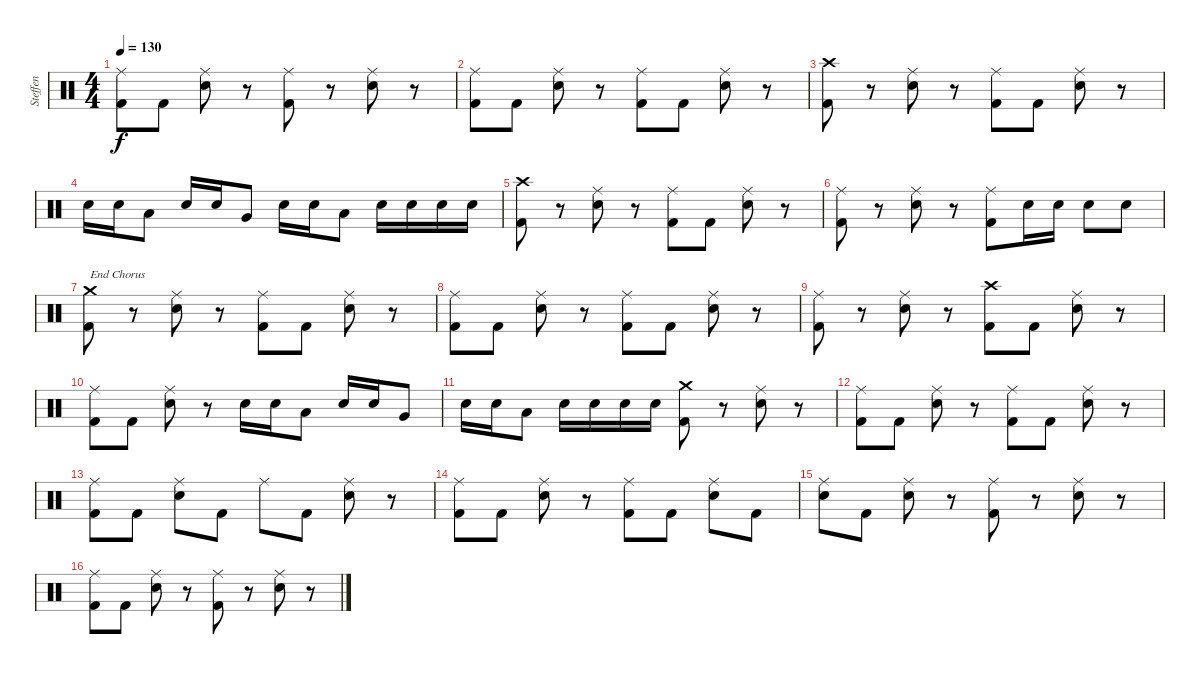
\track ("Steffen" "Steffen") {instrument percussion}
\staff {score}
\articulation defaults
\ts (4 4)
\tempo 130
\clef neutral
\ks c
("Ride (middle)" "Kick (hit) 2").8{dy f} "Kick (hit) 2".8 ("Ride (middle)" "Snare (hit) 2").8 r.8 ("Ride (middle)" "Kick (hit) 2").8 r.8 ("Ride (middle)" "Snare (hit) 2").8 r.8 |
("Ride (middle)" "Kick (hit) 2").8 "Kick (hit) 2".8 ("Ride (middle)" "Snare (hit) 2").8 r.8 ("Ride (middle)" "Kick (hit) 2").8 "Kick (hit) 2".8 ("Ride (middle)" "Snare (hit) 2").8 r.8 |
("Crash high (hit)" "Kick (hit) 2").8 r.8 ("Ride (middle)" "Snare (hit) 2").8 r.8 ("Ride (middle)" "Kick (hit) 2").8 "Kick (hit) 2".8 ("Ride (middle)" "Snare (hit) 2").8 r.8 |
"Snare (hit) 2".16 "Snare (hit) 2".16 "Low Tom (hit)".8 "Snare (hit) 2".16 "Snare (hit) 2".16 "Very Low Tom (hit)".8 "Snare (hit) 2".16 "Snare (hit) 2".16 "Low Floor Tom (hit)".8 "Snare (hit) 2".16 "Snare (hit) 2".16 "Snare (hit) 2".16 "Snare (hit) 2".16 |
("Crash high (hit)" "Kick (hit) 2").8 r.8 ("Ride (middle)" "Snare (hit) 2").8 r.8 ("Ride (middle)" "Kick (hit) 2").8 "Kick (hit) 2".8 ("Ride (middle)" "Snare (hit) 2").8 r.8 |
("Ride (middle)" "Kick (hit) 2").8 r.8 ("Ride (middle)" "Snare (hit) 2").8 r.8 ("Ride (middle)" "Kick (hit) 2").8 "Snare (hit) 2".16 "Snare (hit) 2".16 "Snare (hit) 2".8 "Snare (hit) 2".8 |
("Crash medium (hit)" "Kick (hit) 2").8{txt "End Chorus"} r.8 ("Ride (middle)" "Snare (hit) 2").8 r.8 ("Ride (middle)" "Kick (hit) 2").8 "Kick (hit) 2".8 ("Ride (middle)" "Snare (hit) 2").8 r.8 |
("Ride (middle)" "Kick (hit) 2").8 "Kick (hit) 2".8 ("Ride (middle)" "Snare (hit) 2").8 r.8 ("Ride (middle)" "Kick (hit) 2").8 "Kick (hit) 2".8 ("Ride (middle)" "Snare (hit) 2").8 r.8 |
("Ride (middle)" "Kick (hit) 2").8 r.8 ("Ride (middle)" "Snare (hit) 2").8 r.8 ("Crash high (hit)" "Kick (hit) 2").8 "Kick (hit) 2".8 ("Ride (middle)" "Snare (hit) 2").8 r.8 |
("Ride (middle)" "Kick (hit) 2").8 "Kick (hit) 2".8 ("Ride (middle)" "Snare (hit) 2").8 r.8 "Snare (hit) 2".16 "Snare (hit) 2".16 "Low Tom (hit)".8 "Snare (hit) 2".16 "Snare (hit) 2".16 "Very Low Tom (hit)".8 |
"Snare (hit) 2".16 "Snare (hit) 2".16 "Low Floor Tom (hit)".8 "Snare (hit) 2".16 "Snare (hit) 2".16 "Snare (hit) 2".16 "Snare (hit) 2".16 ("Crash medium (hit)" "Kick (hit) 2").8 r.8 ("Ride (middle)" "Snare (hit) 2").8 r.8 |
("Ride (middle)" "Kick (hit) 2").8 "Kick (hit) 2".8 ("Ride (middle)" "Snare (hit) 2").8 r.8 ("Ride (middle)" "Kick (hit) 2").8 "Kick (hit) 2".8 ("Ride (middle)" "Snare (hit) 2").8 r.8 |
("Ride (middle)" "Kick (hit) 2").8 "Kick (hit) 2".8 ("Ride (middle)" "Snare (hit) 2").8 "Kick (hit) 2".8 "Ride (middle)".8 "Kick (hit) 2".8 ("Ride (middle)" "Snare (hit) 2").8 r.8 |
("Ride (middle)" "Kick (hit) 2").8 "Kick (hit) 2".8 ("Ride (middle)" "Snare (hit) 2").8 r.8 ("Ride (middle)" "Kick (hit) 2").8 "Kick (hit) 2".8 ("Ride (middle)" "Snare (hit) 2").8 "Kick (hit) 2".8 |
("Ride (middle)" "Snare (hit) 2").8 "Kick (hit) 2".8 ("Ride (middle)" "Snare (hit) 2").8 r.8 ("Ride (middle)" "Kick (hit) 2").8 r.8 ("Ride (middle)" "Snare (hit) 2").8 r.8 |
("Ride (middle)" "Kick (hit) 2").8 "Kick (hit) 2".8 ("Ride (middle)" "Snare (hit) 2").8 r.8 ("Ride (middle)" "Kick (hit) 2").8 r.8 ("Ride (middle)" "Snare (hit) 2").8 r.8
